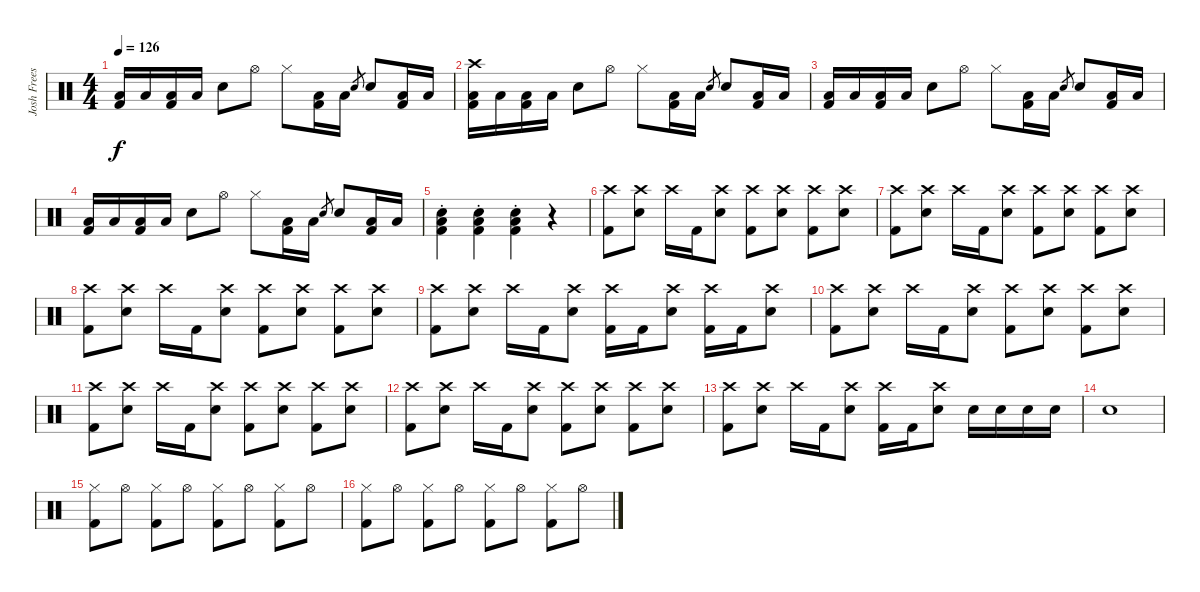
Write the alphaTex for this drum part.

\track ("Josh Freese" "Josh Frees") {instrument percussion}
\staff {score}
\articulation defaults
\ts (4 4)
\tempo 126
\clef neutral
\ks c
("Low Floor Tom (hit)" "Kick (hit) 2").16{dy f} "Low Floor Tom (hit)".16 ("Low Floor Tom (hit)" "Kick (hit) 2").16 "Low Floor Tom (hit)".16 "Snare (hit) 2".8 "Hi-Hat (open)".8 "Hi-Hat (closed)".8 ("Low Floor Tom (hit)" "Kick (hit) 2").16 "Low Floor Tom (hit)".16 "Snare (hit) 2".8{gr} "Snare (hit) 2".8 ("Low Floor Tom (hit)" "Kick (hit) 2").16 "Low Floor Tom (hit)".16 |
("Crash high (hit)" "Low Floor Tom (hit)" "Kick (hit) 2").16 "Low Floor Tom (hit)".16 ("Low Floor Tom (hit)" "Kick (hit) 2").16 "Low Floor Tom (hit)".16 "Snare (hit) 2".8 "Hi-Hat (open)".8 "Hi-Hat (closed)".8 ("Low Floor Tom (hit)" "Kick (hit) 2").16 "Low Floor Tom (hit)".16 "Snare (hit) 2".8{gr} "Snare (hit) 2".8 ("Low Floor Tom (hit)" "Kick (hit) 2").16 "Low Floor Tom (hit)".16 |
("Low Floor Tom (hit)" "Kick (hit) 2").16 "Low Floor Tom (hit)".16 ("Low Floor Tom (hit)" "Kick (hit) 2").16 "Low Floor Tom (hit)".16 "Snare (hit) 2".8 "Hi-Hat (open)".8 "Hi-Hat (closed)".8 ("Low Floor Tom (hit)" "Kick (hit) 2").16 "Low Floor Tom (hit)".16 "Snare (hit) 2".8{gr} "Snare (hit) 2".8 ("Low Floor Tom (hit)" "Kick (hit) 2").16 "Low Floor Tom (hit)".16 |
("Low Floor Tom (hit)" "Kick (hit) 2").16 "Low Floor Tom (hit)".16 ("Low Floor Tom (hit)" "Kick (hit) 2").16 "Low Floor Tom (hit)".16 "Snare (hit) 2".8 "Hi-Hat (open)".8 "Hi-Hat (closed)".8 ("Low Floor Tom (hit)" "Kick (hit) 2").16 "Low Floor Tom (hit)".16 "Snare (hit) 2".8{gr} "Snare (hit) 2".8 ("Low Floor Tom (hit)" "Kick (hit) 2").16 "Low Floor Tom (hit)".16 |
("Snare (hit) 2"{st} "Low Floor Tom (hit)"{st} "Kick (hit) 2"{st}).4 ("Snare (hit) 2"{st} "Low Floor Tom (hit)"{st} "Kick (hit) 2"{st}).4 ("Snare (hit) 2"{st} "Low Floor Tom (hit)"{st} "Kick (hit) 2"{st}).4 r.4 |
("Crash high (hit)" "Kick (hit) 2").8 ("Crash high (hit)" "Snare (hit) 2").8 "Crash high (hit)".16 "Kick (hit) 2".16 ("Crash high (hit)" "Snare (hit) 2").8 ("Crash high (hit)" "Kick (hit) 2").8 ("Crash high (hit)" "Snare (hit) 2").8 ("Crash high (hit)" "Kick (hit) 2").8 ("Crash high (hit)" "Snare (hit) 2").8 |
("Crash high (hit)" "Kick (hit) 2").8 ("Crash high (hit)" "Snare (hit) 2").8 "Crash high (hit)".16 "Kick (hit) 2".16 ("Crash high (hit)" "Snare (hit) 2").8 ("Crash high (hit)" "Kick (hit) 2").8 ("Crash high (hit)" "Snare (hit) 2").8 ("Crash high (hit)" "Kick (hit) 2").8 ("Crash high (hit)" "Snare (hit) 2").8 |
("Crash high (hit)" "Kick (hit) 2").8 ("Crash high (hit)" "Snare (hit) 2").8 "Crash high (hit)".16 "Kick (hit) 2".16 ("Crash high (hit)" "Snare (hit) 2").8 ("Crash high (hit)" "Kick (hit) 2").8 ("Crash high (hit)" "Snare (hit) 2").8 ("Crash high (hit)" "Kick (hit) 2").8 ("Crash high (hit)" "Snare (hit) 2").8 |
("Crash high (hit)" "Kick (hit) 2").8 ("Crash high (hit)" "Snare (hit) 2").8 "Crash high (hit)".16 "Kick (hit) 2".16 ("Crash high (hit)" "Snare (hit) 2").8 ("Crash high (hit)" "Kick (hit) 2").16 "Kick (hit) 2".16 ("Crash high (hit)" "Snare (hit) 2").8 ("Crash high (hit)" "Kick (hit) 2").16 "Kick (hit) 2".16 ("Crash high (hit)" "Snare (hit) 2").8 |
("Crash high (hit)" "Kick (hit) 2").8 ("Crash high (hit)" "Snare (hit) 2").8 "Crash high (hit)".16 "Kick (hit) 2".16 ("Crash high (hit)" "Snare (hit) 2").8 ("Crash high (hit)" "Kick (hit) 2").8 ("Crash high (hit)" "Snare (hit) 2").8 ("Crash high (hit)" "Kick (hit) 2").8 ("Crash high (hit)" "Snare (hit) 2").8 |
("Crash high (hit)" "Kick (hit) 2").8 ("Crash high (hit)" "Snare (hit) 2").8 "Crash high (hit)".16 "Kick (hit) 2".16 ("Crash high (hit)" "Snare (hit) 2").8 ("Crash high (hit)" "Kick (hit) 2").8 ("Crash high (hit)" "Snare (hit) 2").8 ("Crash high (hit)" "Kick (hit) 2").8 ("Crash high (hit)" "Snare (hit) 2").8 |
("Crash high (hit)" "Kick (hit) 2").8 ("Crash high (hit)" "Snare (hit) 2").8 "Crash high (hit)".16 "Kick (hit) 2".16 ("Crash high (hit)" "Snare (hit) 2").8 ("Crash high (hit)" "Kick (hit) 2").8 ("Crash high (hit)" "Snare (hit) 2").8 ("Crash high (hit)" "Kick (hit) 2").8 ("Crash high (hit)" "Snare (hit) 2").8 |
("Crash high (hit)" "Kick (hit) 2").8 ("Crash high (hit)" "Snare (hit) 2").8 "Crash high (hit)".16 "Kick (hit) 2".16 ("Crash high (hit)" "Snare (hit) 2").8 ("Crash high (hit)" "Kick (hit) 2").16 "Kick (hit) 2".16 ("Crash high (hit)" "Snare (hit) 2").8 "Snare (hit) 2".16 "Snare (hit) 2".16 "Snare (hit) 2".16 "Snare (hit) 2".16 |
"Snare (hit) 2".1 |
("Hi-Hat (closed)" "Kick (hit) 2").8 "Hi-Hat (open)".8 ("Hi-Hat (closed)" "Kick (hit) 2").8 "Hi-Hat (open)".8 ("Hi-Hat (closed)" "Kick (hit) 2").8 "Hi-Hat (open)".8 ("Hi-Hat (closed)" "Kick (hit) 2").8 "Hi-Hat (open)".8 |
("Hi-Hat (closed)" "Kick (hit) 2").8 "Hi-Hat (open)".8 ("Hi-Hat (closed)" "Kick (hit) 2").8 "Hi-Hat (open)".8 ("Hi-Hat (closed)" "Kick (hit) 2").8 "Hi-Hat (open)".8 ("Hi-Hat (closed)" "Kick (hit) 2").8 "Hi-Hat (open)".8
